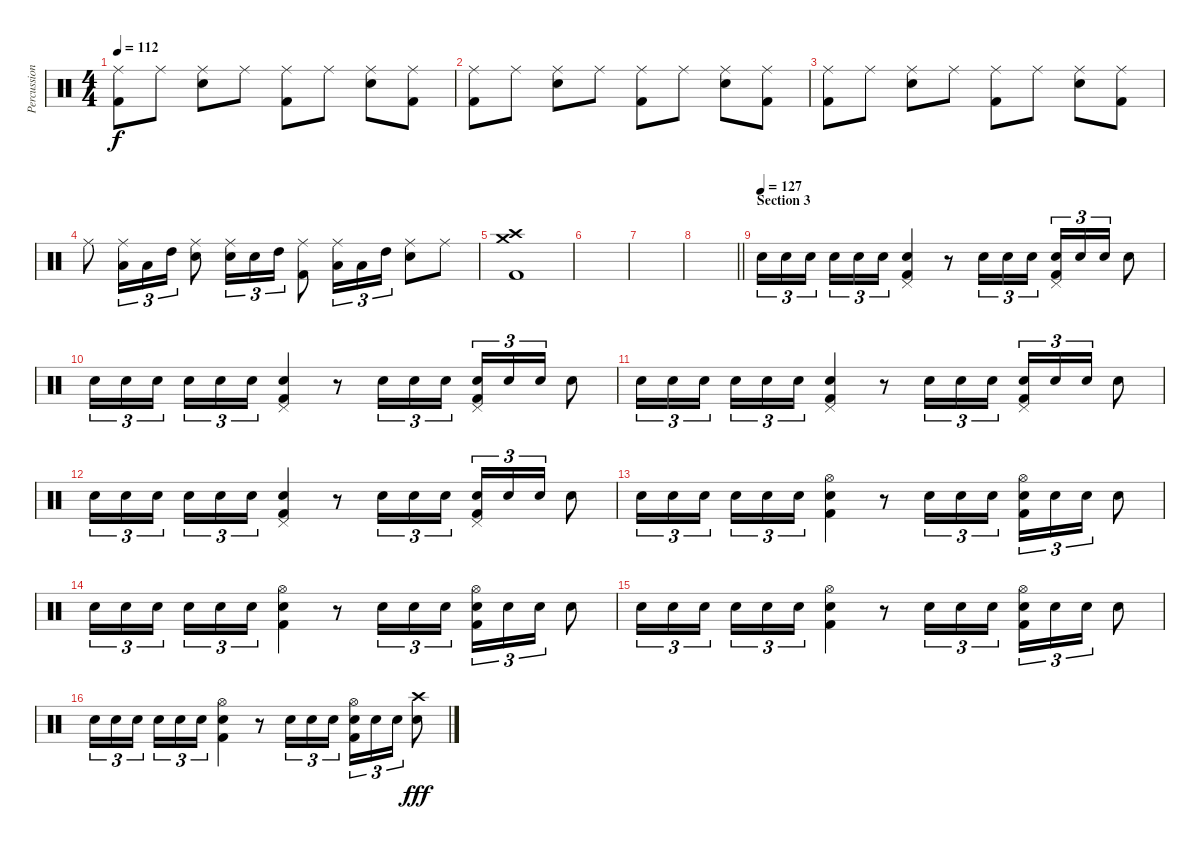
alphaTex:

\track ("Percussion" "Percussion") {instrument percussion}
\staff {score}
\articulation defaults
\ts (4 4)
\tempo 112
\clef neutral
\ks c
("Ride (middle)" "Kick (hit) 2").8{dy f} "Ride (middle)".8 ("Ride (middle)" "Snare (hit) 2").8 "Ride (middle)".8 ("Ride (middle)" "Kick (hit) 2").8 "Ride (middle)".8 ("Ride (middle)" "Snare (hit) 2").8 ("Ride (middle)" "Kick (hit) 2").8 |
("Ride (middle)" "Kick (hit) 2").8 "Ride (middle)".8 ("Ride (middle)" "Snare (hit) 2").8 "Ride (middle)".8 ("Ride (middle)" "Kick (hit) 2").8 "Ride (middle)".8 ("Ride (middle)" "Snare (hit) 2").8 ("Ride (middle)" "Kick (hit) 2").8 |
("Ride (middle)" "Kick (hit) 2").8 "Ride (middle)".8 ("Ride (middle)" "Snare (hit) 2").8 "Ride (middle)".8 ("Ride (middle)" "Kick (hit) 2").8 "Ride (middle)".8 ("Ride (middle)" "Snare (hit) 2").8 ("Ride (middle)" "Kick (hit) 2").8 |
"Ride (middle)".8 ("Ride (middle)" "Low Tom (hit)").16{tu (3 2)} "Low Tom (hit)".16{tu (3 2)} "High Tom (hit)".16{tu (3 2)} ("Ride (middle)" "Snare (hit) 2").8 ("Ride (middle)" "Snare (hit) 2").16{tu (3 2)} "Snare (hit) 2".16{tu (3 2)} "High Tom (hit)".16{tu (3 2)} ("Ride (middle)" "Kick (hit) 2").8 ("Ride (middle)" "Low Tom (hit)").16{tu (3 2)} "Low Tom (hit)".16{tu (3 2)} "High Tom (hit)".16{tu (3 2)} ("Ride (middle)" "Snare (hit) 2").8 "Ride (middle)".8 |
("Crash medium (hit)" "Crash high (hit)" "Kick (hit) 2").1 |
|
|
\barLineRight lightlight
|
\section ("" "Section 3")
\tempo (127)
"Snare (hit) 2".16{tu (3 2)} "Snare (hit) 2".16{tu (3 2)} "Snare (hit) 2".16{tu (3 2) beam splitsecondary} "Snare (hit) 2".16{tu (3 2)} "Snare (hit) 2".16{tu (3 2)} "Snare (hit) 2".16{tu (3 2)} ("Pedal Hi-Hat (hit)" "Snare (hit) 2" "Kick (hit) 2").4 r.8 "Snare (hit) 2".16{tu (3 2)} "Snare (hit) 2".16{tu (3 2)} "Snare (hit) 2".16{tu (3 2)} ("Pedal Hi-Hat (hit)" "Snare (hit) 2" "Kick (hit) 2").16{tu (3 2)} "Snare (hit) 2".16{tu (3 2)} "Snare (hit) 2".16{tu (3 2)} "Snare (hit) 2".8 |
"Snare (hit) 2".16{tu (3 2)} "Snare (hit) 2".16{tu (3 2)} "Snare (hit) 2".16{tu (3 2) beam splitsecondary} "Snare (hit) 2".16{tu (3 2)} "Snare (hit) 2".16{tu (3 2)} "Snare (hit) 2".16{tu (3 2)} ("Pedal Hi-Hat (hit)" "Snare (hit) 2" "Kick (hit) 2").4 r.8 "Snare (hit) 2".16{tu (3 2)} "Snare (hit) 2".16{tu (3 2)} "Snare (hit) 2".16{tu (3 2)} ("Pedal Hi-Hat (hit)" "Snare (hit) 2" "Kick (hit) 2").16{tu (3 2)} "Snare (hit) 2".16{tu (3 2)} "Snare (hit) 2".16{tu (3 2)} "Snare (hit) 2".8 |
"Snare (hit) 2".16{tu (3 2)} "Snare (hit) 2".16{tu (3 2)} "Snare (hit) 2".16{tu (3 2) beam splitsecondary} "Snare (hit) 2".16{tu (3 2)} "Snare (hit) 2".16{tu (3 2)} "Snare (hit) 2".16{tu (3 2)} ("Pedal Hi-Hat (hit)" "Snare (hit) 2" "Kick (hit) 2").4 r.8 "Snare (hit) 2".16{tu (3 2)} "Snare (hit) 2".16{tu (3 2)} "Snare (hit) 2".16{tu (3 2)} ("Pedal Hi-Hat (hit)" "Snare (hit) 2" "Kick (hit) 2").16{tu (3 2)} "Snare (hit) 2".16{tu (3 2)} "Snare (hit) 2".16{tu (3 2)} "Snare (hit) 2".8 |
"Snare (hit) 2".16{tu (3 2)} "Snare (hit) 2".16{tu (3 2)} "Snare (hit) 2".16{tu (3 2) beam splitsecondary} "Snare (hit) 2".16{tu (3 2)} "Snare (hit) 2".16{tu (3 2)} "Snare (hit) 2".16{tu (3 2)} ("Pedal Hi-Hat (hit)" "Snare (hit) 2" "Kick (hit) 2").4 r.8 "Snare (hit) 2".16{tu (3 2)} "Snare (hit) 2".16{tu (3 2)} "Snare (hit) 2".16{tu (3 2)} ("Pedal Hi-Hat (hit)" "Snare (hit) 2" "Kick (hit) 2").16{tu (3 2)} "Snare (hit) 2".16{tu (3 2)} "Snare (hit) 2".16{tu (3 2)} "Snare (hit) 2".8 |
"Snare (hit) 2".16{tu (3 2)} "Snare (hit) 2".16{tu (3 2)} "Snare (hit) 2".16{tu (3 2) beam splitsecondary} "Snare (hit) 2".16{tu (3 2)} "Snare (hit) 2".16{tu (3 2)} "Snare (hit) 2".16{tu (3 2)} ("Hi-Hat (open)" "Snare (hit) 2" "Kick (hit) 2").4 r.8 "Snare (hit) 2".16{tu (3 2)} "Snare (hit) 2".16{tu (3 2)} "Snare (hit) 2".16{tu (3 2)} ("Hi-Hat (open)" "Snare (hit) 2" "Kick (hit) 2").16{tu (3 2)} "Snare (hit) 2".16{tu (3 2)} "Snare (hit) 2".16{tu (3 2)} "Snare (hit) 2".8 |
"Snare (hit) 2".16{tu (3 2)} "Snare (hit) 2".16{tu (3 2)} "Snare (hit) 2".16{tu (3 2) beam splitsecondary} "Snare (hit) 2".16{tu (3 2)} "Snare (hit) 2".16{tu (3 2)} "Snare (hit) 2".16{tu (3 2)} ("Hi-Hat (open)" "Snare (hit) 2" "Kick (hit) 2").4 r.8 "Snare (hit) 2".16{tu (3 2)} "Snare (hit) 2".16{tu (3 2)} "Snare (hit) 2".16{tu (3 2)} ("Hi-Hat (open)" "Snare (hit) 2" "Kick (hit) 2").16{tu (3 2)} "Snare (hit) 2".16{tu (3 2)} "Snare (hit) 2".16{tu (3 2)} "Snare (hit) 2".8 |
"Snare (hit) 2".16{tu (3 2)} "Snare (hit) 2".16{tu (3 2)} "Snare (hit) 2".16{tu (3 2) beam splitsecondary} "Snare (hit) 2".16{tu (3 2)} "Snare (hit) 2".16{tu (3 2)} "Snare (hit) 2".16{tu (3 2)} ("Hi-Hat (open)" "Snare (hit) 2" "Kick (hit) 2").4 r.8 "Snare (hit) 2".16{tu (3 2)} "Snare (hit) 2".16{tu (3 2)} "Snare (hit) 2".16{tu (3 2)} ("Hi-Hat (open)" "Snare (hit) 2" "Kick (hit) 2").16{tu (3 2)} "Snare (hit) 2".16{tu (3 2)} "Snare (hit) 2".16{tu (3 2)} "Snare (hit) 2".8 |
"Snare (hit) 2".16{tu (3 2)} "Snare (hit) 2".16{tu (3 2)} "Snare (hit) 2".16{tu (3 2) beam splitsecondary} "Snare (hit) 2".16{tu (3 2)} "Snare (hit) 2".16{tu (3 2)} "Snare (hit) 2".16{tu (3 2)} ("Hi-Hat (open)" "Snare (hit) 2" "Kick (hit) 2").4 r.8 "Snare (hit) 2".16{tu (3 2)} "Snare (hit) 2".16{tu (3 2)} "Snare (hit) 2".16{tu (3 2)} ("Hi-Hat (open)" "Snare (hit) 2" "Kick (hit) 2").16{tu (3 2)} "Snare (hit) 2".16{tu (3 2)} "Snare (hit) 2".16{tu (3 2)} ("Crash high (hit)" "Snare (hit) 2").8{dy fff}
